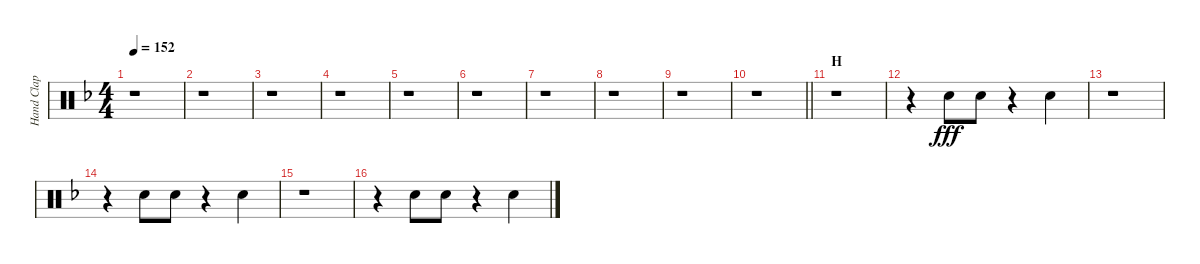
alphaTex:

\track ("Hand Clap" "Hand Clap") {instrument percussion}
\staff {score}
\articulation defaults
\ts (4 4)
\tempo 152
\clef neutral
\ks f
r.1{dy fff} |
r.1 |
r.1 |
r.1 |
r.1 |
r.1 |
r.1 |
r.1 |
r.1 |
\barLineRight lightlight
r.1 |
\section ("" "H")
r.1 |
r.4 "Hand Clap (hit)".8 "Hand Clap (hit)".8 r.4 "Hand Clap (hit)".4 |
r.1 |
r.4 "Hand Clap (hit)".8 "Hand Clap (hit)".8 r.4 "Hand Clap (hit)".4 |
r.1 |
r.4 "Hand Clap (hit)".8 "Hand Clap (hit)".8 r.4 "Hand Clap (hit)".4
